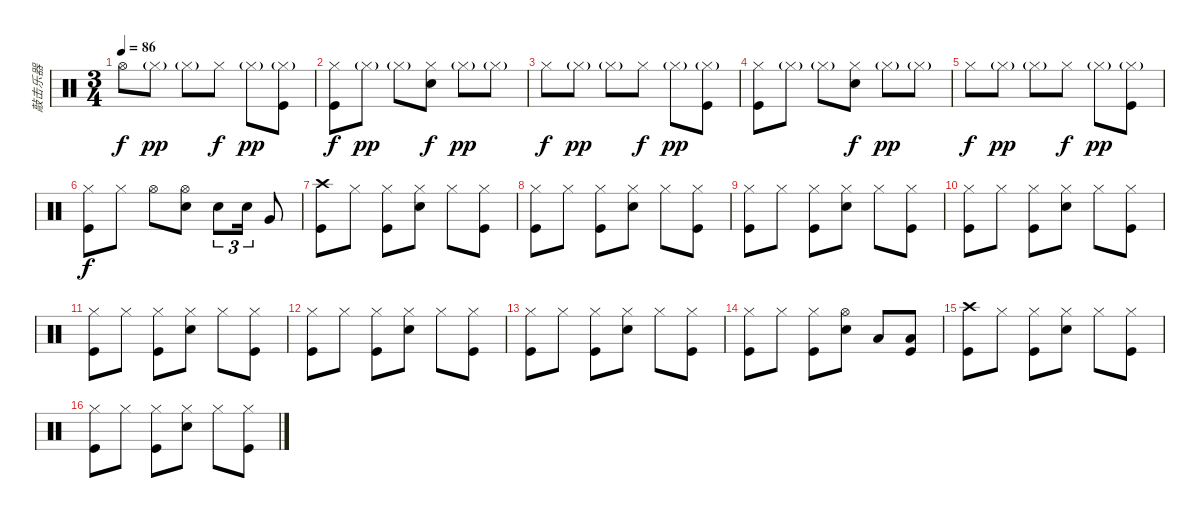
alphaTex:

\track ("敲击乐器" "敲击乐器") {instrument percussion}
\staff {score}
\articulation defaults
\ts (3 4)
\tempo 86
\clef neutral
\ks c "Hi-Hat (open)".8{dy f} "Hi-Hat (closed)"{g}.8{dy pp} "Hi-Hat (closed)"{g}.8 "Hi-Hat (closed)".8{dy f} "Hi-Hat (closed)"{g}.8{dy pp}
("Hi-Hat (closed)"{g} "Kick (hit)").8 |
("Hi-Hat (closed)" "Kick (hit)").8{dy f} "Hi-Hat (closed)"{g}.8{dy pp} "Hi-Hat (closed)"{g}.8 ("Hi-Hat (closed)" "Snare (hit) 2").8{dy f} "Hi-Hat (closed)"{g}.8{dy pp} "Hi-Hat (closed)"{g}.8 |
"Hi-Hat (closed)".8{dy f} "Hi-Hat (closed)"{g}.8{dy pp} "Hi-Hat (closed)"{g}.8 "Hi-Hat (closed)".8{dy f} "Hi-Hat (closed)"{g}.8{dy pp} ("Hi-Hat (closed)"{g} "Kick (hit)").8 |
("Hi-Hat (closed)" "Kick (hit)").8 "Hi-Hat (closed)"{g}.8 "Hi-Hat (closed)"{g}.8 ("Hi-Hat (closed)" "Snare (hit) 2").8{dy f} "Hi-Hat (closed)"{g}.8{dy pp} "Hi-Hat (closed)"{g}.8 |
"Hi-Hat (closed)".8{dy f} "Hi-Hat (closed)"{g}.8{dy pp} "Hi-Hat (closed)"{g}.8 "Hi-Hat (closed)".8{dy f} "Hi-Hat (closed)"{g}.8{dy pp} ("Hi-Hat (closed)"{g} "Kick (hit)").8 |
("Hi-Hat (closed)" "Kick (hit)").8{dy f} "Hi-Hat (closed)".8 "Hi-Hat (open)".8 ("Hi-Hat (open)" "Snare (hit) 2").8 "Snare (hit) 2".8{tu (3 2)} "Snare (hit) 2".16{tu (3 2)} "Very Low Tom (hit)".8 |
("Crash high (hit)" "Kick (hit)").8 "Hi-Hat (closed)".8 ("Hi-Hat (closed)" "Kick (hit)").8 ("Hi-Hat (closed)" "Snare (hit) 2").8 "Hi-Hat (closed)".8 ("Hi-Hat (closed)" "Kick (hit)").8 |
("Hi-Hat (closed)" "Kick (hit)").8 "Hi-Hat (closed)".8 ("Hi-Hat (closed)" "Kick (hit)").8 ("Hi-Hat (closed)" "Snare (hit) 2").8 "Hi-Hat (closed)".8 ("Hi-Hat (closed)" "Kick (hit)").8 |
("Hi-Hat (closed)" "Kick (hit)").8 "Hi-Hat (closed)".8 ("Hi-Hat (closed)" "Kick (hit)").8 ("Hi-Hat (closed)" "Snare (hit) 2").8 "Hi-Hat (closed)".8 ("Hi-Hat (closed)" "Kick (hit)").8 |
("Hi-Hat (closed)" "Kick (hit)").8 "Hi-Hat (closed)".8 ("Hi-Hat (closed)" "Kick (hit)").8 ("Hi-Hat (closed)" "Snare (hit) 2").8 "Hi-Hat (closed)".8 ("Hi-Hat (closed)" "Kick (hit)").8 |
("Hi-Hat (closed)" "Kick (hit)").8 "Hi-Hat (closed)".8 ("Hi-Hat (closed)" "Kick (hit)").8 ("Hi-Hat (closed)" "Snare (hit) 2").8 "Hi-Hat (closed)".8 ("Hi-Hat (closed)" "Kick (hit)").8 |
("Hi-Hat (closed)" "Kick (hit)").8 "Hi-Hat (closed)".8 ("Hi-Hat (closed)" "Kick (hit)").8 ("Hi-Hat (closed)" "Snare (hit) 2").8 "Hi-Hat (closed)".8 ("Hi-Hat (closed)" "Kick (hit)").8 |
("Hi-Hat (closed)" "Kick (hit)").8 "Hi-Hat (closed)".8 ("Hi-Hat (closed)" "Kick (hit)").8 ("Hi-Hat (closed)" "Snare (hit) 2").8 "Hi-Hat (closed)".8 ("Hi-Hat (closed)" "Kick (hit)").8 |
("Hi-Hat (closed)" "Kick (hit)").8 "Hi-Hat (closed)".8 ("Hi-Hat (closed)" "Kick (hit)").8 ("Hi-Hat (open)" "Snare (hit) 2").8 "Low Tom (hit)".8 ("Low Floor Tom (hit)" "Kick (hit)").8 |
("Crash high (hit)" "Kick (hit)").8 "Hi-Hat (closed)".8 ("Hi-Hat (closed)" "Kick (hit)").8 ("Hi-Hat (closed)" "Snare (hit) 2").8 "Hi-Hat (closed)".8 ("Hi-Hat (closed)" "Kick (hit)").8 |
("Hi-Hat (closed)" "Kick (hit)").8 "Hi-Hat (closed)".8 ("Hi-Hat (closed)" "Kick (hit)").8 ("Hi-Hat (closed)" "Snare (hit) 2").8 "Hi-Hat (closed)".8 ("Hi-Hat (closed)" "Kick (hit)").8
